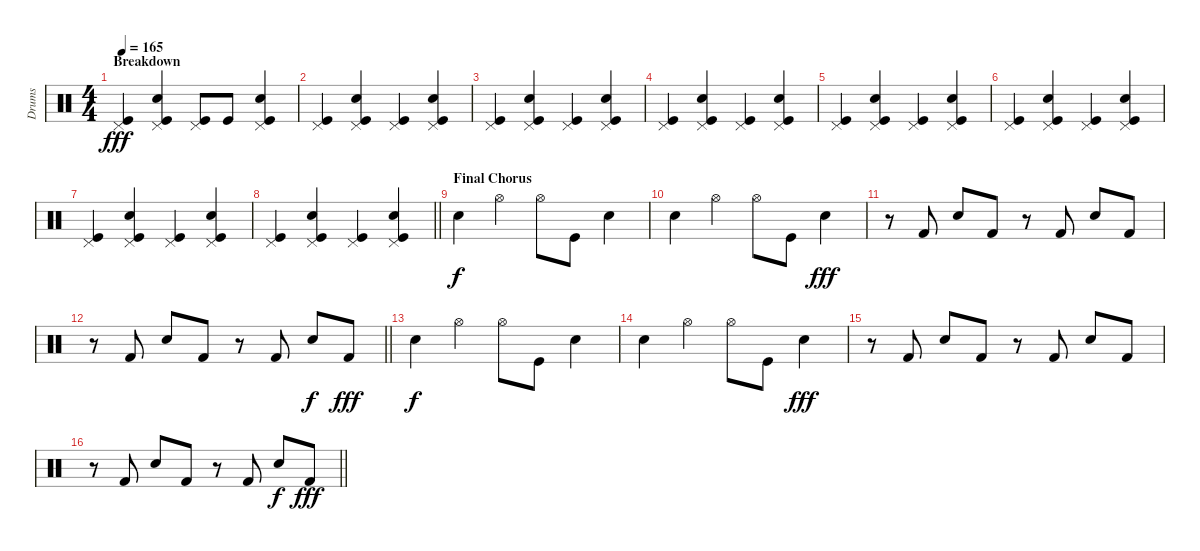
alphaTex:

\track ("Drums" "Drums") {instrument percussion}
\staff {score}
\articulation defaults
\ts (4 4)
\section ("" "Breakdown")
\tempo 165
\clef neutral
\ks c
("Pedal Hi-Hat (hit)" "Kick (hit)").4{dy fff} ("Snare (hit) 2" "Pedal Hi-Hat (hit)" "Kick (hit)").4 ("Pedal Hi-Hat (hit)" "Kick (hit)").8 "Kick (hit)".8 ("Snare (hit) 2" "Pedal Hi-Hat (hit)" "Kick (hit)").4 |
("Pedal Hi-Hat (hit)" "Kick (hit)").4 ("Snare (hit) 2" "Pedal Hi-Hat (hit)" "Kick (hit)").4 ("Pedal Hi-Hat (hit)" "Kick (hit)").4 ("Snare (hit) 2" "Pedal Hi-Hat (hit)" "Kick (hit)").4 |
("Pedal Hi-Hat (hit)" "Kick (hit)").4 ("Snare (hit) 2" "Pedal Hi-Hat (hit)" "Kick (hit)").4 ("Pedal Hi-Hat (hit)" "Kick (hit)").4 ("Snare (hit) 2" "Pedal Hi-Hat (hit)" "Kick (hit)").4 |
("Pedal Hi-Hat (hit)" "Kick (hit)").4 ("Snare (hit) 2" "Pedal Hi-Hat (hit)" "Kick (hit)").4 ("Pedal Hi-Hat (hit)" "Kick (hit)").4 ("Snare (hit) 2" "Pedal Hi-Hat (hit)" "Kick (hit)").4 |
("Pedal Hi-Hat (hit)" "Kick (hit)").4 ("Snare (hit) 2" "Pedal Hi-Hat (hit)" "Kick (hit)").4 ("Pedal Hi-Hat (hit)" "Kick (hit)").4 ("Snare (hit) 2" "Pedal Hi-Hat (hit)" "Kick (hit)").4 |
("Pedal Hi-Hat (hit)" "Kick (hit)").4 ("Snare (hit) 2" "Pedal Hi-Hat (hit)" "Kick (hit)").4 ("Pedal Hi-Hat (hit)" "Kick (hit)").4 ("Snare (hit) 2" "Pedal Hi-Hat (hit)" "Kick (hit)").4 |
("Pedal Hi-Hat (hit)" "Kick (hit)").4 ("Snare (hit) 2" "Pedal Hi-Hat (hit)" "Kick (hit)").4 ("Pedal Hi-Hat (hit)" "Kick (hit)").4 ("Snare (hit) 2" "Pedal Hi-Hat (hit)" "Kick (hit)").4 |
\barLineRight lightlight
("Pedal Hi-Hat (hit)" "Kick (hit)").4 ("Snare (hit) 2" "Pedal Hi-Hat (hit)" "Kick (hit)").4 ("Pedal Hi-Hat (hit)" "Kick (hit)").4 ("Snare (hit) 2" "Pedal Hi-Hat (hit)" "Kick (hit)").4 |
\section ("" "Final Chorus")
"Snare (hit) 2".4{dy f} "Hi-Hat (open)".4 "Hi-Hat (open)".8 "Kick (hit)".8 "Snare (hit) 2".4 |
"Snare (hit) 2".4 "Hi-Hat (open)".4 "Hi-Hat (open)".8 "Kick (hit)".8 "Snare (hit) 2".4{dy fff} |
r.8 "Kick (hit) 2".8 "Snare (hit) 2".8 "Kick (hit) 2".8 r.8 "Kick (hit) 2".8 "Snare (hit) 2".8 "Kick (hit) 2".8 |
\barLineRight lightlight
r.8 "Kick (hit) 2".8 "Snare (hit) 2".8 "Kick (hit) 2".8 r.8 "Kick (hit) 2".8 "Snare (hit) 2".8{dy f} "Kick (hit) 2".8{dy fff} |
"Snare (hit) 2".4{dy f} "Hi-Hat (open)".4 "Hi-Hat (open)".8 "Kick (hit)".8 "Snare (hit) 2".4 |
"Snare (hit) 2".4 "Hi-Hat (open)".4 "Hi-Hat (open)".8 "Kick (hit)".8 "Snare (hit) 2".4{dy fff} |
r.8 "Kick (hit) 2".8 "Snare (hit) 2".8 "Kick (hit) 2".8 r.8 "Kick (hit) 2".8 "Snare (hit) 2".8 "Kick (hit) 2".8 |
\barLineRight lightlight
r.8 "Kick (hit) 2".8 "Snare (hit) 2".8 "Kick (hit) 2".8 r.8 "Kick (hit) 2".8 "Snare (hit) 2".8{dy f} "Kick (hit) 2".8{dy fff}
